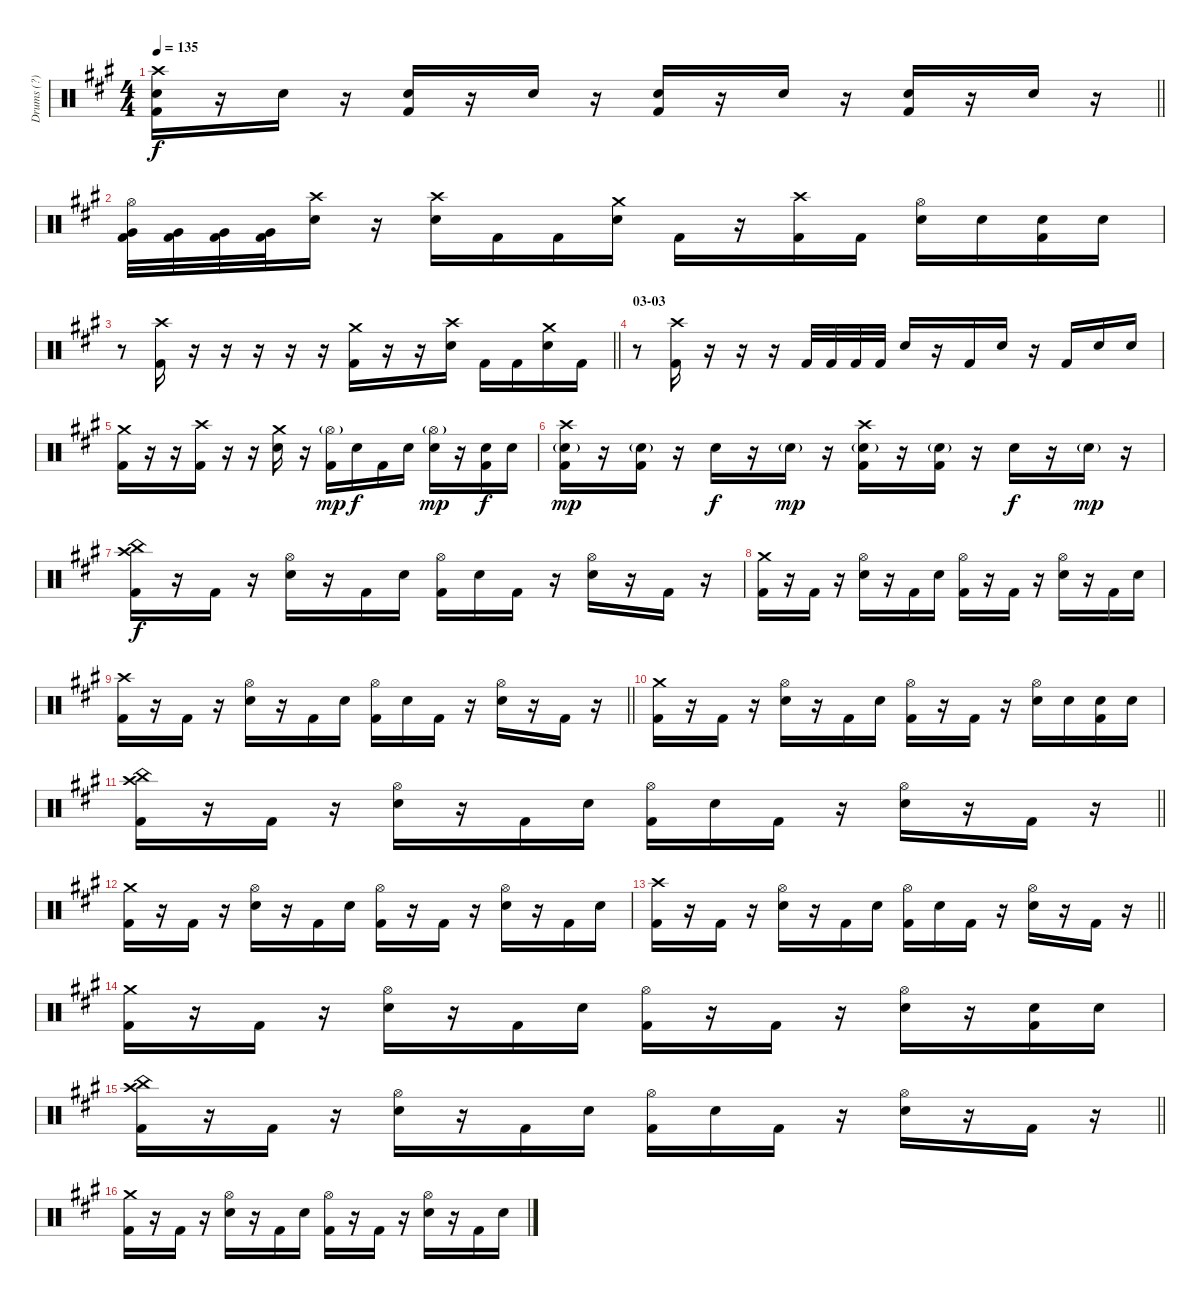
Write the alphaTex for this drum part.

\track ("Drums (?)" "Drums (?)") {instrument percussion}
\staff {score}
\articulation defaults
\ts (4 4)
\tempo 135
\clef neutral
\barLineRight lightlight
\ks a
("Crash high (hit)" "Electric Snare (hit)" "Kick (hit) 2").16{dy f} r.16 "Electric Snare (hit)".16 r.16 ("Electric Snare (hit)" "Kick (hit) 2").16 r.16 "Electric Snare (hit)".16 r.16 ("Electric Snare (hit)" "Kick (hit) 2").16 r.16 "Electric Snare (hit)".16 r.16 ("Electric Snare (hit)" "Kick (hit) 2").16 r.16 "Electric Snare (hit)".16 r.16 |
("Hi-Hat (open)" "Very Low Tom (hit)" "Kick (hit) 2").32 ("Very Low Tom (hit)" "Kick (hit) 2").32 ("Very Low Tom (hit)" "Kick (hit) 2").32 ("Very Low Tom (hit)" "Kick (hit) 2").32 ("Crash high (hit)" "Electric Snare (hit)").16 r.16 ("Crash high (hit)" "Electric Snare (hit)").16 "Kick (hit) 2".16 "Kick (hit) 2".16 ("Crash medium (hit)" "Electric Snare (hit)").16 "Kick (hit) 2".16 r.16 ("Crash high (hit)" "Kick (hit) 2").16 "Kick (hit) 2".16 ("Hi-Hat (open)" "Electric Snare (hit)").16 "Electric Snare (hit)".16 ("Electric Snare (hit)" "Kick (hit) 2").16 "Electric Snare (hit)".16 |
\barLineRight lightlight
r.8 ("Crash high (hit)" "Kick (hit) 2").16 r.16 r.16 r.16 r.16 r.16 ("Crash medium (hit)" "Kick (hit) 2").16 r.16 r.16 ("Crash high (hit)" "Electric Snare (hit)").16 "Kick (hit) 2".16 "Kick (hit) 2".16 ("Crash medium (hit)" "Electric Snare (hit)").16 "Kick (hit) 2".16 |
\section ("" "03-03")
r.8 ("Crash high (hit)" "Kick (hit) 2").16 r.16 r.16 r.16 "Kick (hit) 2".32 "Kick (hit) 2".32 "Kick (hit) 2".32 "Kick (hit) 2".32 "Electric Snare (hit)".16 r.16 "Kick (hit) 2".16 "Electric Snare (hit)".16 r.16 "Kick (hit) 2".16 "Electric Snare (hit)".16 "Electric Snare (hit)".16 |
("Crash medium (hit)" "Kick (hit) 2").16 r.16 r.16 ("Crash high (hit)" "Kick (hit) 2").16 r.16 r.16 ("Crash medium (hit)" "Electric Snare (hit)").16 r.16 ("Hi-Hat (open)"{g} "Kick (hit) 2").16{dy mp} "Electric Snare (hit)".16{dy f} "Kick (hit) 2".16 "Electric Snare (hit)".16 ("Hi-Hat (open)"{g} "Electric Snare (hit)").16{dy mp} r.16 ("Electric Snare (hit)" "Kick (hit) 2").16{dy f} "Electric Snare (hit)".16 |
("Crash high (hit)" "Electric Snare (hit)"{g} "Kick (hit) 2").16{dy mp} r.16 ("Electric Snare (hit)"{g} "Kick (hit) 2").16 r.16 "Electric Snare (hit)".16{dy f} r.16 "Electric Snare (hit)"{g}.16{dy mp} r.16 ("Crash high (hit)" "Electric Snare (hit)"{g} "Kick (hit) 2").16 r.16 ("Electric Snare (hit)"{g} "Kick (hit) 2").16 r.16 "Electric Snare (hit)".16{dy f} r.16 "Electric Snare (hit)"{g}.16{dy mp} r.16 |
("Crash high (hit)" "China (hit)" "Kick (hit) 2").16{dy f} r.16 "Kick (hit) 2".16 r.16 ("Hi-Hat (open)" "Electric Snare (hit)").16 r.16 "Kick (hit) 2".16 "Electric Snare (hit)".16 ("Hi-Hat (open)" "Kick (hit) 2").16 "Electric Snare (hit)".16 "Kick (hit) 2".16 r.16 ("Hi-Hat (open)" "Electric Snare (hit)").16 r.16 "Kick (hit) 2".16 r.16 |
("Crash medium (hit)" "Kick (hit) 2").16 r.16 "Kick (hit) 2".16 r.16 ("Hi-Hat (open)" "Electric Snare (hit)").16 r.16 "Kick (hit) 2".16 "Electric Snare (hit)".16 ("Hi-Hat (open)" "Kick (hit) 2").16 r.16 "Kick (hit) 2".16 r.16 ("Hi-Hat (open)" "Electric Snare (hit)").16 r.16 "Kick (hit) 2".16 "Electric Snare (hit)".16 |
\barLineRight lightlight
("Crash high (hit)" "Kick (hit) 2").16 r.16 "Kick (hit) 2".16 r.16 ("Hi-Hat (open)" "Electric Snare (hit)").16 r.16 "Kick (hit) 2".16 "Electric Snare (hit)".16 ("Hi-Hat (open)" "Kick (hit) 2").16 "Electric Snare (hit)".16 "Kick (hit) 2".16 r.16 ("Hi-Hat (open)" "Electric Snare (hit)").16 r.16 "Kick (hit) 2".16 r.16 |
("Crash medium (hit)" "Kick (hit) 2").16 r.16 "Kick (hit) 2".16 r.16 ("Hi-Hat (open)" "Electric Snare (hit)").16 r.16 "Kick (hit) 2".16 "Electric Snare (hit)".16 ("Hi-Hat (open)" "Kick (hit) 2").16 r.16 "Kick (hit) 2".16 r.16 ("Hi-Hat (open)" "Electric Snare (hit)").16 "Electric Snare (hit)".16 ("Electric Snare (hit)" "Kick (hit) 2").16 "Electric Snare (hit)".16 |
\barLineRight lightlight
("Crash high (hit)" "China (hit)" "Kick (hit) 2").16 r.16 "Kick (hit) 2".16 r.16 ("Hi-Hat (open)" "Electric Snare (hit)").16 r.16 "Kick (hit) 2".16 "Electric Snare (hit)".16 ("Hi-Hat (open)" "Kick (hit) 2").16 "Electric Snare (hit)".16 "Kick (hit) 2".16 r.16 ("Hi-Hat (open)" "Electric Snare (hit)").16 r.16 "Kick (hit) 2".16 r.16 |
("Crash medium (hit)" "Kick (hit) 2").16 r.16 "Kick (hit) 2".16 r.16 ("Hi-Hat (open)" "Electric Snare (hit)").16 r.16 "Kick (hit) 2".16 "Electric Snare (hit)".16 ("Hi-Hat (open)" "Kick (hit) 2").16 r.16 "Kick (hit) 2".16 r.16 ("Hi-Hat (open)" "Electric Snare (hit)").16 r.16 "Kick (hit) 2".16 "Electric Snare (hit)".16 |
\barLineRight lightlight
("Crash high (hit)" "Kick (hit) 2").16 r.16 "Kick (hit) 2".16 r.16 ("Hi-Hat (open)" "Electric Snare (hit)").16 r.16 "Kick (hit) 2".16 "Electric Snare (hit)".16 ("Hi-Hat (open)" "Kick (hit) 2").16 "Electric Snare (hit)".16 "Kick (hit) 2".16 r.16 ("Hi-Hat (open)" "Electric Snare (hit)").16 r.16 "Kick (hit) 2".16 r.16 |
("Crash medium (hit)" "Kick (hit) 2").16 r.16 "Kick (hit) 2".16 r.16 ("Hi-Hat (open)" "Electric Snare (hit)").16 r.16 "Kick (hit) 2".16 "Electric Snare (hit)".16 ("Hi-Hat (open)" "Kick (hit) 2").16 r.16 "Kick (hit) 2".16 r.16 ("Hi-Hat (open)" "Electric Snare (hit)").16 r.16 ("Electric Snare (hit)" "Kick (hit) 2").16 "Electric Snare (hit)".16 |
\barLineRight lightlight
("Crash high (hit)" "China (hit)" "Kick (hit) 2").16 r.16 "Kick (hit) 2".16 r.16 ("Hi-Hat (open)" "Electric Snare (hit)").16 r.16 "Kick (hit) 2".16 "Electric Snare (hit)".16 ("Hi-Hat (open)" "Kick (hit) 2").16 "Electric Snare (hit)".16 "Kick (hit) 2".16 r.16 ("Hi-Hat (open)" "Electric Snare (hit)").16 r.16 "Kick (hit) 2".16 r.16 |
("Crash medium (hit)" "Kick (hit) 2").16 r.16 "Kick (hit) 2".16 r.16 ("Hi-Hat (open)" "Electric Snare (hit)").16 r.16 "Kick (hit) 2".16 "Electric Snare (hit)".16 ("Hi-Hat (open)" "Kick (hit) 2").16 r.16 "Kick (hit) 2".16 r.16 ("Hi-Hat (open)" "Electric Snare (hit)").16 r.16 "Kick (hit) 2".16 "Electric Snare (hit)".16
